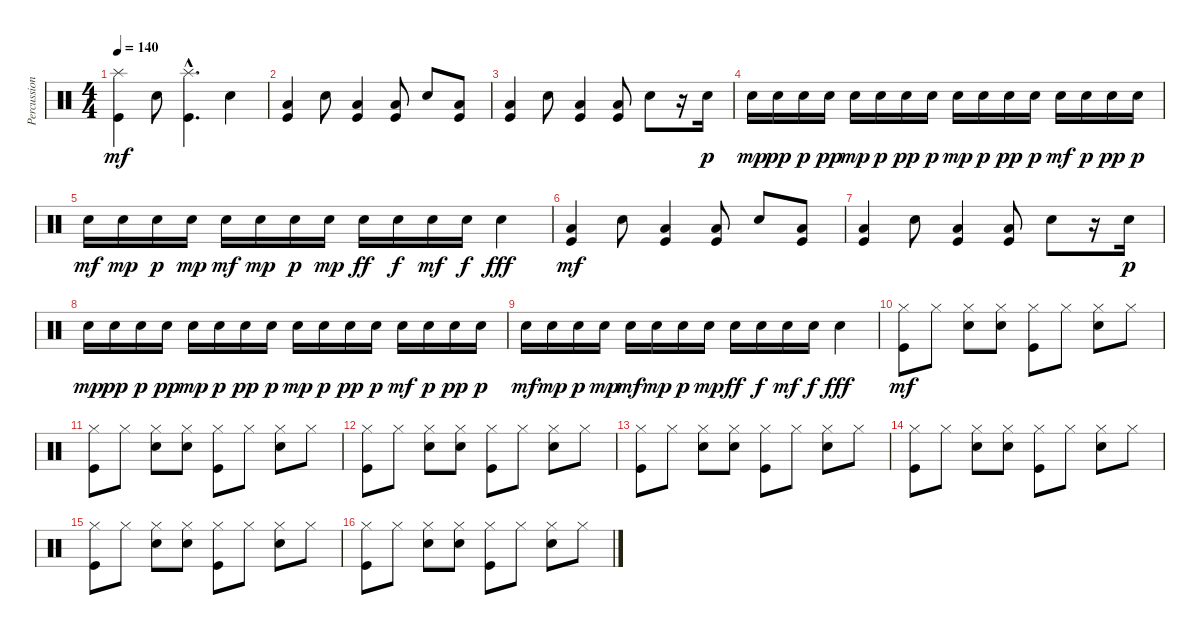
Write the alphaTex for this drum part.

\track ("Percussion" "Percussion") {instrument percussion}
\staff {score}
\articulation defaults
\ts (4 4)
\tempo 140
\clef neutral
\ks c
("Splash (hit)" "Kick (hit)").4{dy mf} "Snare (hit) 2".8 ("Splash (hit)"{hac} "Kick (hit)"{hac}).4{d} "Snare (hit) 2".4 |
("Low Tom (hit)" "Kick (hit)").4 "Snare (hit) 2".8 ("Low Tom (hit)" "Kick (hit)").4 ("Low Tom (hit)" "Kick (hit)").8 "Snare (hit) 2".8 ("Low Tom (hit)" "Kick (hit)").8 |
("Low Tom (hit)" "Kick (hit)").4 "Snare (hit) 2".8 ("Low Tom (hit)" "Kick (hit)").4 ("Low Tom (hit)" "Kick (hit)").8 "Snare (hit) 2".8 r.16 "Snare (hit) 2".16{dy p} |
"Snare (hit) 2".16{dy mp} "Snare (hit) 2".16{dy pp} "Snare (hit) 2".16{dy p} "Snare (hit) 2".16{dy pp} "Snare (hit) 2".16{dy mp} "Snare (hit) 2".16{dy p} "Snare (hit) 2".16{dy pp} "Snare (hit) 2".16{dy p} "Snare (hit) 2".16{dy mp} "Snare (hit) 2".16{dy p} "Snare (hit) 2".16{dy pp} "Snare (hit) 2".16{dy p} "Snare (hit) 2".16{dy mf} "Snare (hit) 2".16{dy p} "Snare (hit) 2".16{dy pp} "Snare (hit) 2".16{dy p} |
"Snare (hit) 2".16{dy mf} "Snare (hit) 2".16{dy mp} "Snare (hit) 2".16{dy p} "Snare (hit) 2".16{dy mp} "Snare (hit) 2".16{dy mf} "Snare (hit) 2".16{dy mp} "Snare (hit) 2".16{dy p} "Snare (hit) 2".16{dy mp} "Snare (hit) 2".16{dy ff} "Snare (hit) 2".16{dy f} "Snare (hit) 2".16{dy mf} "Snare (hit) 2".16{dy f} "Snare (hit) 2".4{dy fff} |
("Low Tom (hit)" "Kick (hit)").4{dy mf} "Snare (hit) 2".8 ("Low Tom (hit)" "Kick (hit)").4 ("Low Tom (hit)" "Kick (hit)").8 "Snare (hit) 2".8 ("Low Tom (hit)" "Kick (hit)").8 |
("Low Tom (hit)" "Kick (hit)").4 "Snare (hit) 2".8 ("Low Tom (hit)" "Kick (hit)").4 ("Low Tom (hit)" "Kick (hit)").8 "Snare (hit) 2".8 r.16 "Snare (hit) 2".16{dy p} |
"Snare (hit) 2".16{dy mp} "Snare (hit) 2".16{dy pp} "Snare (hit) 2".16{dy p} "Snare (hit) 2".16{dy pp} "Snare (hit) 2".16{dy mp} "Snare (hit) 2".16{dy p} "Snare (hit) 2".16{dy pp} "Snare (hit) 2".16{dy p} "Snare (hit) 2".16{dy mp} "Snare (hit) 2".16{dy p} "Snare (hit) 2".16{dy pp} "Snare (hit) 2".16{dy p} "Snare (hit) 2".16{dy mf} "Snare (hit) 2".16{dy p} "Snare (hit) 2".16{dy pp} "Snare (hit) 2".16{dy p} |
"Snare (hit) 2".16{dy mf} "Snare (hit) 2".16{dy mp} "Snare (hit) 2".16{dy p} "Snare (hit) 2".16{dy mp} "Snare (hit) 2".16{dy mf} "Snare (hit) 2".16{dy mp} "Snare (hit) 2".16{dy p} "Snare (hit) 2".16{dy mp} "Snare (hit) 2".16{dy ff} "Snare (hit) 2".16{dy f} "Snare (hit) 2".16{dy mf} "Snare (hit) 2".16{dy f} "Snare (hit) 2".4{dy fff} |
("Hi-Hat (closed)" "Kick (hit)").8{dy mf} "Hi-Hat (closed)".8 ("Hi-Hat (closed)" "Snare (hit) 2").8 ("Hi-Hat (closed)" "Snare (hit) 2").8 ("Hi-Hat (closed)" "Kick (hit)").8 "Hi-Hat (closed)".8 ("Hi-Hat (closed)" "Snare (hit) 2").8 "Hi-Hat (closed)".8 |
("Hi-Hat (closed)" "Kick (hit)").8 "Hi-Hat (closed)".8 ("Hi-Hat (closed)" "Snare (hit) 2").8 ("Hi-Hat (closed)" "Snare (hit) 2").8 ("Hi-Hat (closed)" "Kick (hit)").8 "Hi-Hat (closed)".8 ("Hi-Hat (closed)" "Snare (hit) 2").8 "Hi-Hat (closed)".8 |
("Hi-Hat (closed)" "Kick (hit)").8 "Hi-Hat (closed)".8 ("Hi-Hat (closed)" "Snare (hit) 2").8 ("Hi-Hat (closed)" "Snare (hit) 2").8 ("Hi-Hat (closed)" "Kick (hit)").8 "Hi-Hat (closed)".8 ("Hi-Hat (closed)" "Snare (hit) 2").8 "Hi-Hat (closed)".8 |
("Hi-Hat (closed)" "Kick (hit)").8 "Hi-Hat (closed)".8 ("Hi-Hat (closed)" "Snare (hit) 2").8 ("Hi-Hat (closed)" "Snare (hit) 2").8 ("Hi-Hat (closed)" "Kick (hit)").8 "Hi-Hat (closed)".8 ("Hi-Hat (closed)" "Snare (hit) 2").8 "Hi-Hat (closed)".8 |
("Hi-Hat (closed)" "Kick (hit)").8 "Hi-Hat (closed)".8 ("Hi-Hat (closed)" "Snare (hit) 2").8 ("Hi-Hat (closed)" "Snare (hit) 2").8 ("Hi-Hat (closed)" "Kick (hit)").8 "Hi-Hat (closed)".8 ("Hi-Hat (closed)" "Snare (hit) 2").8 "Hi-Hat (closed)".8 |
("Hi-Hat (closed)" "Kick (hit)").8 "Hi-Hat (closed)".8 ("Hi-Hat (closed)" "Snare (hit) 2").8 ("Hi-Hat (closed)" "Snare (hit) 2").8 ("Hi-Hat (closed)" "Kick (hit)").8 "Hi-Hat (closed)".8 ("Hi-Hat (closed)" "Snare (hit) 2").8 "Hi-Hat (closed)".8 |
("Hi-Hat (closed)" "Kick (hit)").8 "Hi-Hat (closed)".8 ("Hi-Hat (closed)" "Snare (hit) 2").8 ("Hi-Hat (closed)" "Snare (hit) 2").8 ("Hi-Hat (closed)" "Kick (hit)").8 "Hi-Hat (closed)".8 ("Hi-Hat (closed)" "Snare (hit) 2").8 "Hi-Hat (closed)".8
